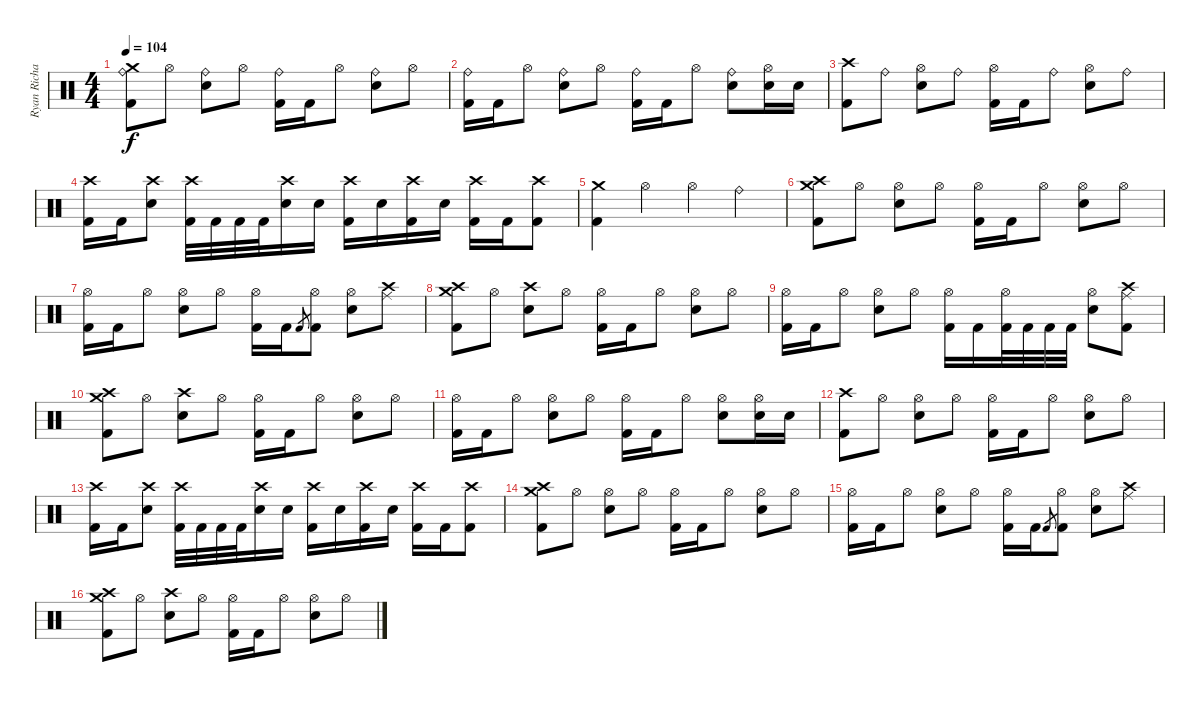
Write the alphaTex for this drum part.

\track ("Ryan Richards" "Ryan Richa") {instrument percussion}
\staff {score}
\articulation defaults
\ts (4 4)
\tempo 104
\clef neutral
\ks c
("Ride (bell)" "Crash medium (hit)" "Kick (hit) 2").8{dy f} "Hi-Hat (open)".8 ("Ride (bell)" "Snare (hit) 2").8 "Hi-Hat (open)".8 ("Ride (bell)" "Kick (hit) 2").16 "Kick (hit) 2".16 "Hi-Hat (open)".8 ("Ride (bell)" "Snare (hit) 2").8 "Hi-Hat (open)".8 |
("Ride (bell)" "Kick (hit) 2").16 "Kick (hit) 2".16 "Hi-Hat (open)".8 ("Ride (bell)" "Snare (hit) 2").8 "Hi-Hat (open)".8 ("Ride (bell)" "Kick (hit) 2").16 "Kick (hit) 2".16 "Hi-Hat (open)".8 ("Ride (bell)" "Snare (hit) 2").8 ("Hi-Hat (open)" "Snare (hit) 2").16 "Snare (hit) 2".16 |
("Crash high (hit)" "Kick (hit) 2").8 "Ride (bell)".8 ("Hi-Hat (open)" "Snare (hit) 2").8 "Ride (bell)".8 ("Hi-Hat (open)" "Kick (hit) 2").16 "Kick (hit) 2".16 "Ride (bell)".8 ("Hi-Hat (open)" "Snare (hit) 2").8 "Ride (bell)".8 |
("Crash high (hit)" "Kick (hit) 2").16 "Kick (hit) 2".16 ("Crash high (hit)" "Snare (hit) 2").8 ("Crash high (hit)" "Kick (hit) 2").32 "Kick (hit) 2".32 "Kick (hit) 2".32 "Kick (hit) 2".32 ("Crash high (hit)" "Snare (hit) 2").16 "Snare (hit) 2".16 ("Crash high (hit)" "Kick (hit) 2").16 "Snare (hit) 2".16 ("Crash high (hit)" "Kick (hit) 2").16 "Snare (hit) 2".16 ("Crash high (hit)" "Kick (hit) 2").16 "Kick (hit) 2".16 ("Crash high (hit)" "Kick (hit) 2").8 |
("Crash medium (hit)" "Kick (hit) 2").4 "Hi-Hat (open)".4 "Hi-Hat (open)".4 "Ride (bell)".4 |
("Crash high (hit)" "Crash medium (hit)" "Kick (hit) 2").8 "Hi-Hat (open)".8 ("Hi-Hat (open)" "Snare (hit) 2").8 "Hi-Hat (open)".8 ("Hi-Hat (open)" "Kick (hit) 2").16 "Kick (hit) 2".16 "Hi-Hat (open)".8 ("Hi-Hat (open)" "Snare (hit) 2").8 "Hi-Hat (open)".8 |
("Hi-Hat (open)" "Kick (hit) 2").16 "Kick (hit) 2".16 "Hi-Hat (open)".8 ("Hi-Hat (open)" "Snare (hit) 2").8 "Hi-Hat (open)".8 ("Hi-Hat (open)" "Kick (hit) 2").16 "Kick (hit) 2".16 "Kick (hit) 2".8{gr} ("Hi-Hat (open)" "Kick (hit) 2").8 ("Hi-Hat (open)" "Snare (hit) 2").8 ("Crash high (hit)" "Ride (middle)").8 |
("Crash high (hit)" "Crash medium (hit)" "Kick (hit) 2").8 "Hi-Hat (open)".8 ("Crash high (hit)" "Snare (hit) 2").8 "Hi-Hat (open)".8 ("Hi-Hat (open)" "Kick (hit) 2").16 "Kick (hit) 2".16 "Hi-Hat (open)".8 ("Hi-Hat (open)" "Snare (hit) 2").8 "Hi-Hat (open)".8 |
("Hi-Hat (open)" "Kick (hit) 2").16 "Kick (hit) 2".16 "Hi-Hat (open)".8 ("Hi-Hat (open)" "Snare (hit) 2").8 "Hi-Hat (open)".8 ("Hi-Hat (open)" "Kick (hit) 2").16 "Kick (hit) 2".16 ("Hi-Hat (open)" "Kick (hit) 2").32 "Kick (hit) 2".32 "Kick (hit) 2".32 "Kick (hit) 2".32 ("Hi-Hat (open)" "Snare (hit) 2").8 ("Crash high (hit)" "Ride (middle)" "Kick (hit) 2").8 |
("Crash high (hit)" "Crash medium (hit)" "Kick (hit) 2").8 "Hi-Hat (open)".8 ("Crash high (hit)" "Snare (hit) 2").8 "Hi-Hat (open)".8 ("Hi-Hat (open)" "Kick (hit) 2").16 "Kick (hit) 2".16 "Hi-Hat (open)".8 ("Hi-Hat (open)" "Snare (hit) 2").8 "Hi-Hat (open)".8 |
("Hi-Hat (open)" "Kick (hit) 2").16 "Kick (hit) 2".16 "Hi-Hat (open)".8 ("Hi-Hat (open)" "Snare (hit) 2").8 "Hi-Hat (open)".8 ("Hi-Hat (open)" "Kick (hit) 2").16 "Kick (hit) 2".16 "Hi-Hat (open)".8 ("Hi-Hat (open)" "Snare (hit) 2").8 ("Hi-Hat (open)" "Snare (hit) 2").16 "Snare (hit) 2".16 |
("Crash high (hit)" "Kick (hit) 2").8 "Hi-Hat (open)".8 ("Hi-Hat (open)" "Snare (hit) 2").8 "Hi-Hat (open)".8 ("Hi-Hat (open)" "Kick (hit) 2").16 "Kick (hit) 2".16 "Hi-Hat (open)".8 ("Hi-Hat (open)" "Snare (hit) 2").8 "Hi-Hat (open)".8 |
("Crash high (hit)" "Kick (hit) 2").16 "Kick (hit) 2".16 ("Crash high (hit)" "Snare (hit) 2").8 ("Crash high (hit)" "Kick (hit) 2").32 "Kick (hit) 2".32 "Kick (hit) 2".32 "Kick (hit) 2".32 ("Crash high (hit)" "Snare (hit) 2").16 "Snare (hit) 2".16 ("Crash high (hit)" "Kick (hit) 2").16 "Snare (hit) 2".16 ("Crash high (hit)" "Kick (hit) 2").16 "Snare (hit) 2".16 ("Crash high (hit)" "Kick (hit) 2").16 "Kick (hit) 2".16 ("Crash high (hit)" "Kick (hit) 2").8 |
("Crash high (hit)" "Crash medium (hit)" "Kick (hit) 2").8 "Hi-Hat (open)".8 ("Hi-Hat (open)" "Snare (hit) 2").8 "Hi-Hat (open)".8 ("Hi-Hat (open)" "Kick (hit) 2").16 "Kick (hit) 2".16 "Hi-Hat (open)".8 ("Hi-Hat (open)" "Snare (hit) 2").8 "Hi-Hat (open)".8 |
("Hi-Hat (open)" "Kick (hit) 2").16 "Kick (hit) 2".16 "Hi-Hat (open)".8 ("Hi-Hat (open)" "Snare (hit) 2").8 "Hi-Hat (open)".8 ("Hi-Hat (open)" "Kick (hit) 2").16 "Kick (hit) 2".16 "Kick (hit) 2".8{gr} ("Hi-Hat (open)" "Kick (hit) 2").8 ("Hi-Hat (open)" "Snare (hit) 2").8 ("Crash high (hit)" "Ride (middle)").8 |
("Crash high (hit)" "Crash medium (hit)" "Kick (hit) 2").8 "Hi-Hat (open)".8 ("Crash high (hit)" "Snare (hit) 2").8 "Hi-Hat (open)".8 ("Hi-Hat (open)" "Kick (hit) 2").16 "Kick (hit) 2".16 "Hi-Hat (open)".8 ("Hi-Hat (open)" "Snare (hit) 2").8 "Hi-Hat (open)".8
